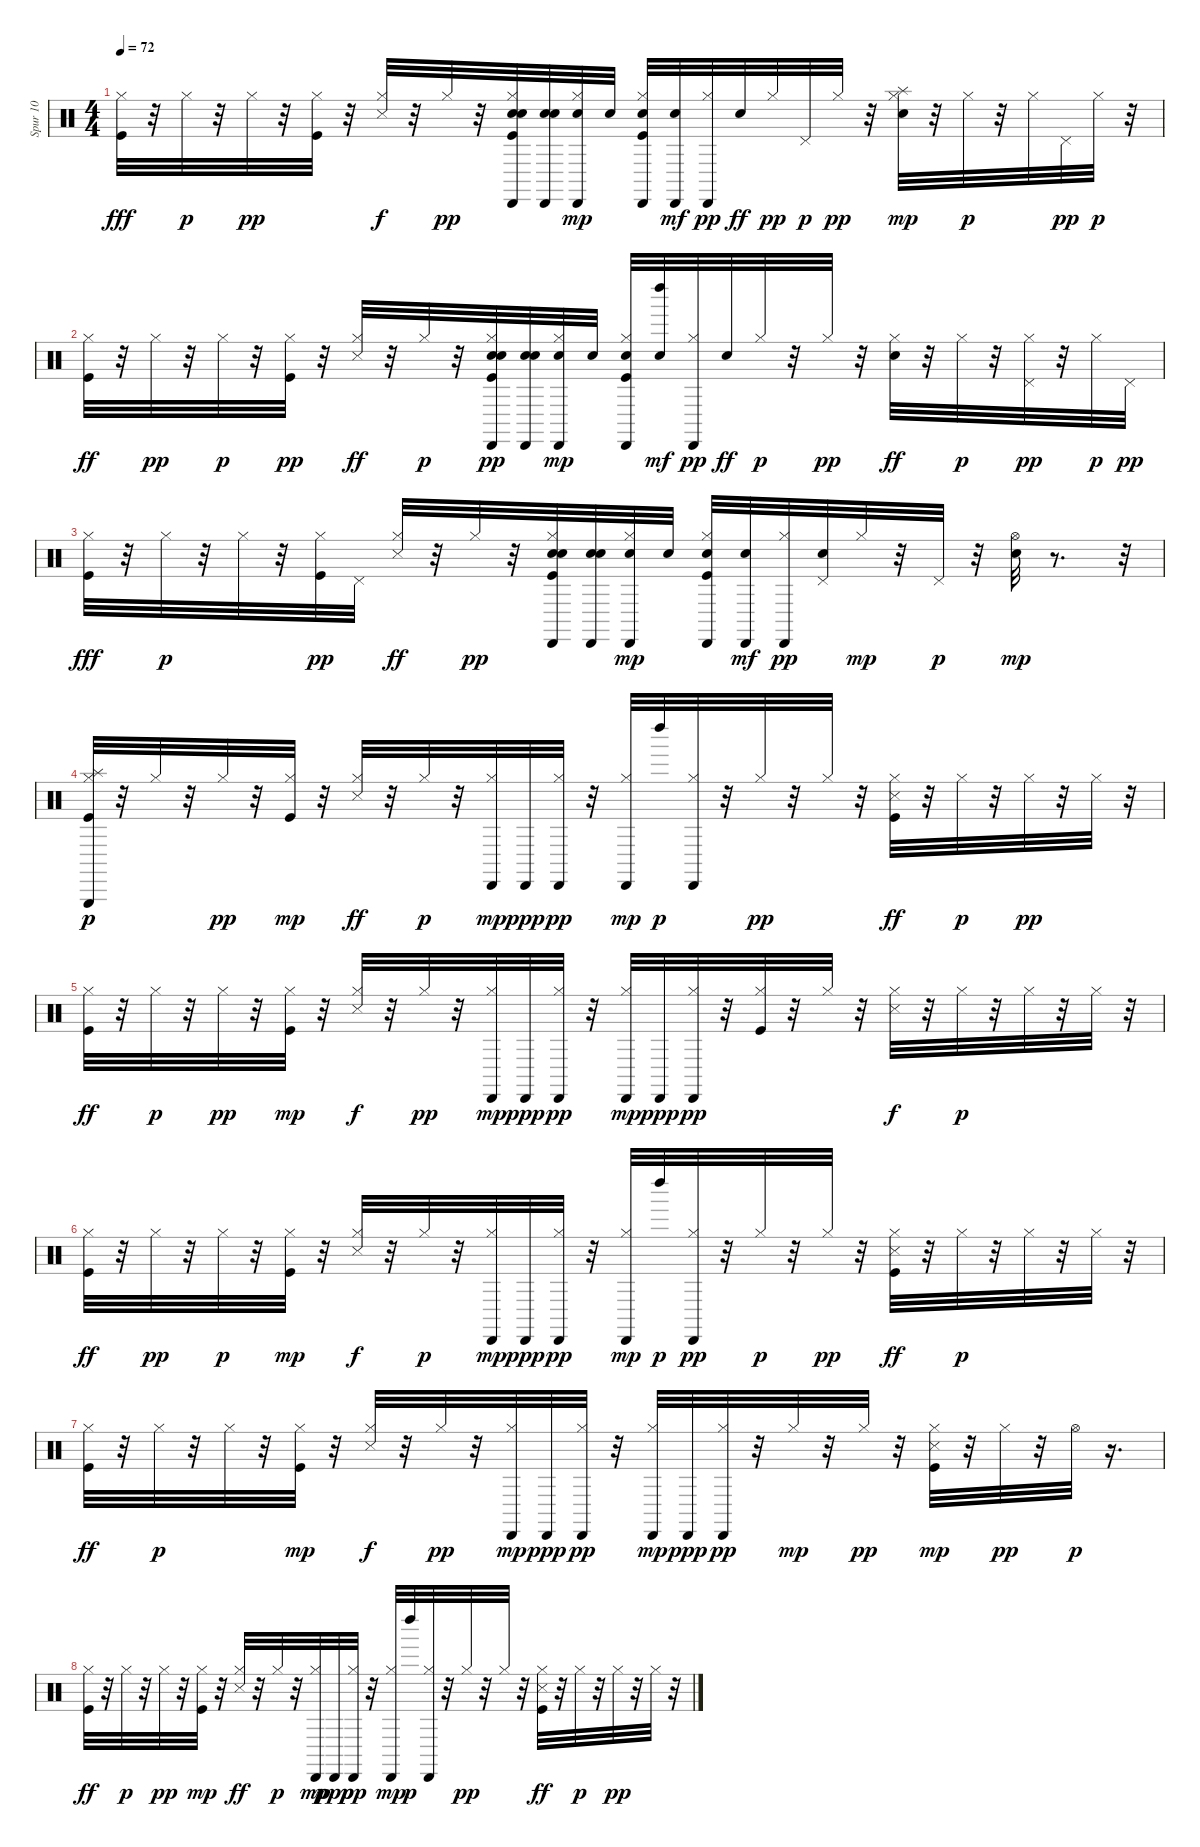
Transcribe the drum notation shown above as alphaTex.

\track ("Spur 10" "Spur 10") {instrument percussion}
\staff {score}
\articulation defaults
\ts (4 4)
\tempo 72
\clef neutral
\ks c
("Kick (hit)" "Hi-Hat (closed)").32{dy fff} r.32 "Hi-Hat (closed)".32{dy p} r.32 "Hi-Hat (closed)".32{dy pp} r.32 ("Kick (hit)" "Hi-Hat (closed)").32 r.32 ("Snare (side stick) 3" "Hi-Hat (closed)").32{dy f} r.32 "Hi-Hat (closed)".32{dy pp} r.32 ("Snare (hit) 2" "Kick (hit)" "Hi-Hat (closed)" "Cabasa (hit)" "Snare (hit) 2").32 ("Cabasa (hit)" "Snare (hit) 2" "Snare (hit) 2").32 ("Hi-Hat (closed)" "Cabasa (hit)" "Snare (hit) 2").32{dy mp} "Snare (hit) 2".32 ("Snare (hit) 2" "Kick (hit)" "Hi-Hat (closed)" "Cabasa (hit)").32 ("Cabasa (hit)" "Snare (hit) 2").32{dy mf} ("Cabasa (hit)" "Hi-Hat (closed)").32{dy pp} "Snare (hit) 2".32{dy ff} "Hi-Hat (closed)".32{dy pp} "Pedal Hi-Hat (hit)".32{dy p} "Hi-Hat (closed)".32{dy pp} r.32 ("Electric Snare (hit)" "Hi-Hat (closed)" "Splash (hit)").32{dy mp} r.32 "Hi-Hat (closed)".32{dy p} r.32 "Hi-Hat (closed)".32 "Pedal Hi-Hat (hit)".32{dy pp} "Hi-Hat (closed)".32{dy p} r.32 |
("Kick (hit)" "Hi-Hat (closed)").32{dy ff} r.32 "Hi-Hat (closed)".32{dy pp} r.32 "Hi-Hat (closed)".32{dy p} r.32 ("Kick (hit)" "Hi-Hat (closed)").32{dy pp} r.32 ("Hi-Hat (closed)" "Snare (side stick) 3").32{dy ff} r.32 "Hi-Hat (closed)".32{dy p} r.32 ("Snare (hit) 2" "Kick (hit)" "Hi-Hat (closed)" "Cabasa (hit)" "Snare (hit) 2").32{dy pp} ("Cabasa (hit)" "Snare (hit) 2" "Snare (hit) 2").32 ("Hi-Hat (closed)" "Cabasa (hit)" "Snare (hit) 2").32{dy mp} "Snare (hit) 2".32 ("Snare (hit) 2" "Kick (hit)" "Hi-Hat (closed)" "Cabasa (hit)").32 ("Left Maraca (hit)" "Snare (hit) 2").32{dy mf} ("Cabasa (hit)" "Hi-Hat (closed)").32{dy pp} "Snare (hit) 2".32{dy ff} "Hi-Hat (closed)".32{dy p} r.32 "Hi-Hat (closed)".32{dy pp} r.32 ("Electric Snare (hit)" "Hi-Hat (closed)").32{dy ff} r.32 "Hi-Hat (closed)".32{dy p} r.32 ("Hi-Hat (closed)" "Pedal Hi-Hat (hit)").32{dy pp} r.32 "Hi-Hat (closed)".32{dy p} "Pedal Hi-Hat (hit)".32{dy pp} |
("Kick (hit)" "Hi-Hat (closed)").32{dy fff} r.32 "Hi-Hat (closed)".32{dy p} r.32 "Hi-Hat (closed)".32 r.32 ("Kick (hit)" "Hi-Hat (closed)").32{dy pp} "Pedal Hi-Hat (hit)".32 ("Hi-Hat (closed)" "Snare (side stick) 3").32{dy ff} r.32 "Hi-Hat (closed)".32{dy pp} r.32 ("Snare (hit) 2" "Kick (hit)" "Hi-Hat (closed)" "Cabasa (hit)" "Snare (hit) 2").32 ("Cabasa (hit)" "Snare (hit) 2" "Snare (hit) 2").32 ("Hi-Hat (closed)" "Cabasa (hit)" "Snare (hit) 2").32{dy mp} "Snare (hit) 2".32 ("Snare (hit) 2" "Kick (hit)" "Hi-Hat (closed)" "Cabasa (hit)").32 ("Cabasa (hit)" "Snare (hit) 2").32{dy mf} ("Cabasa (hit)" "Hi-Hat (closed)").32{dy pp} ("Snare (hit) 2" "Pedal Hi-Hat (hit)").32 "Hi-Hat (closed)".32{dy mp} r.32 "Pedal Hi-Hat (hit)".32{dy p} r.32 ("Electric Snare (hit)" "Hi-Hat (open)").32{dy mp} r.8{d} r.32 |
("Kick (hit)" "Hi-Hat (closed)" "Splash (hit)" "Triangle (hit)").32{dy p} r.32 "Hi-Hat (closed)".32 r.32 "Hi-Hat (closed)".32{dy pp} r.32 ("Hi-Hat (closed)" "Kick (hit)").32{dy mp} r.32 ("Hi-Hat (closed)" "Snare (side stick) 3").32{dy ff} r.32 "Hi-Hat (closed)".32{dy p} r.32 ("Hi-Hat (closed)" "Cabasa (hit)").32{dy mp} "Cabasa (hit)".32{dy ppp} ("Hi-Hat (closed)" "Cabasa (hit)").32{dy pp} r.32 ("Cabasa (hit)" "Hi-Hat (closed)").32{dy mp} "Left Maraca (hit)".32{dy p} ("Cabasa (hit)" "Hi-Hat (closed)").32 r.32 "Hi-Hat (closed)".32{dy pp} r.32 "Hi-Hat (closed)".32 r.32 ("Snare (side stick) 3" "Kick (hit)" "Hi-Hat (closed)").32{dy ff} r.32 "Hi-Hat (closed)".32{dy p} r.32 "Hi-Hat (closed)".32{dy pp} r.32 "Hi-Hat (closed)".32 r.32 |
("Kick (hit)" "Hi-Hat (closed)").32{dy ff} r.32 "Hi-Hat (closed)".32{dy p} r.32 "Hi-Hat (closed)".32{dy pp} r.32 ("Hi-Hat (closed)" "Kick (hit)").32{dy mp} r.32 ("Hi-Hat (closed)" "Snare (side stick) 3").32{dy f} r.32 "Hi-Hat (closed)".32{dy pp} r.32 ("Hi-Hat (closed)" "Cabasa (hit)").32{dy mp} "Cabasa (hit)".32{dy ppp} ("Hi-Hat (closed)" "Cabasa (hit)").32{dy pp} r.32 ("Hi-Hat (closed)" "Cabasa (hit)").32{dy mp} "Cabasa (hit)".32{dy ppp} ("Cabasa (hit)" "Hi-Hat (closed)").32{dy pp} r.32 ("Kick (hit)" "Hi-Hat (closed)").32 r.32 "Hi-Hat (closed)".32 r.32 ("Snare (side stick) 3" "Hi-Hat (closed)").32{dy f} r.32 "Hi-Hat (closed)".32{dy p} r.32 "Hi-Hat (closed)".32 r.32 "Hi-Hat (closed)".32 r.32 |
("Kick (hit)" "Hi-Hat (closed)").32{dy ff} r.32 "Hi-Hat (closed)".32{dy pp} r.32 "Hi-Hat (closed)".32{dy p} r.32 ("Hi-Hat (closed)" "Kick (hit)").32{dy mp} r.32 ("Hi-Hat (closed)" "Snare (side stick) 3").32{dy f} r.32 "Hi-Hat (closed)".32{dy p} r.32 ("Hi-Hat (closed)" "Cabasa (hit)").32{dy mp} "Cabasa (hit)".32{dy ppp} ("Hi-Hat (closed)" "Cabasa (hit)").32{dy pp} r.32 ("Hi-Hat (closed)" "Cabasa (hit)").32{dy mp} "Left Maraca (hit)".32{dy p} ("Cabasa (hit)" "Hi-Hat (closed)").32{dy pp} r.32 "Hi-Hat (closed)".32{dy p} r.32 "Hi-Hat (closed)".32{dy pp} r.32 ("Snare (side stick) 3" "Kick (hit)" "Hi-Hat (closed)").32{dy ff} r.32 "Hi-Hat (closed)".32{dy p} r.32 "Hi-Hat (closed)".32 r.32 "Hi-Hat (closed)".32 r.32 |
("Kick (hit)" "Hi-Hat (closed)").32{dy ff} r.32 "Hi-Hat (closed)".32{dy p} r.32 "Hi-Hat (closed)".32 r.32 ("Hi-Hat (closed)" "Kick (hit)").32{dy mp} r.32 ("Hi-Hat (closed)" "Snare (side stick) 3").32{dy f} r.32 "Hi-Hat (closed)".32{dy pp} r.32 ("Hi-Hat (closed)" "Cabasa (hit)").32{dy mp} "Cabasa (hit)".32{dy ppp} ("Hi-Hat (closed)" "Cabasa (hit)").32{dy pp} r.32 ("Hi-Hat (closed)" "Cabasa (hit)").32{dy mp} "Cabasa (hit)".32{dy ppp} ("Cabasa (hit)" "Hi-Hat (closed)").32{dy pp} r.32 "Hi-Hat (closed)".32{dy mp} r.32 "Hi-Hat (closed)".32{dy pp} r.32 ("Snare (side stick) 3" "Kick (hit)" "Hi-Hat (closed)").32{dy mp} r.32 "Hi-Hat (closed)".32{dy pp} r.32 "Hi-Hat (open)".32{dy p} r.16{d} |
("Kick (hit)" "Hi-Hat (closed)").32{dy ff} r.32 "Hi-Hat (closed)".32{dy p} r.32 "Hi-Hat (closed)".32{dy pp} r.32 ("Hi-Hat (closed)" "Kick (hit)").32{dy mp} r.32 ("Hi-Hat (closed)" "Snare (side stick) 3").32{dy ff} r.32 "Hi-Hat (closed)".32{dy p} r.32 ("Hi-Hat (closed)" "Cabasa (hit)").32{dy mp} "Cabasa (hit)".32{dy ppp} ("Hi-Hat (closed)" "Cabasa (hit)").32{dy pp} r.32 ("Cabasa (hit)" "Hi-Hat (closed)").32{dy mp} "Left Maraca (hit)".32{dy p} ("Cabasa (hit)" "Hi-Hat (closed)").32 r.32 "Hi-Hat (closed)".32{dy pp} r.32 "Hi-Hat (closed)".32 r.32 ("Snare (side stick) 3" "Kick (hit)" "Hi-Hat (closed)").32{dy ff} r.32 "Hi-Hat (closed)".32{dy p} r.32 "Hi-Hat (closed)".32{dy pp} r.32 "Hi-Hat (closed)".32 r.32
